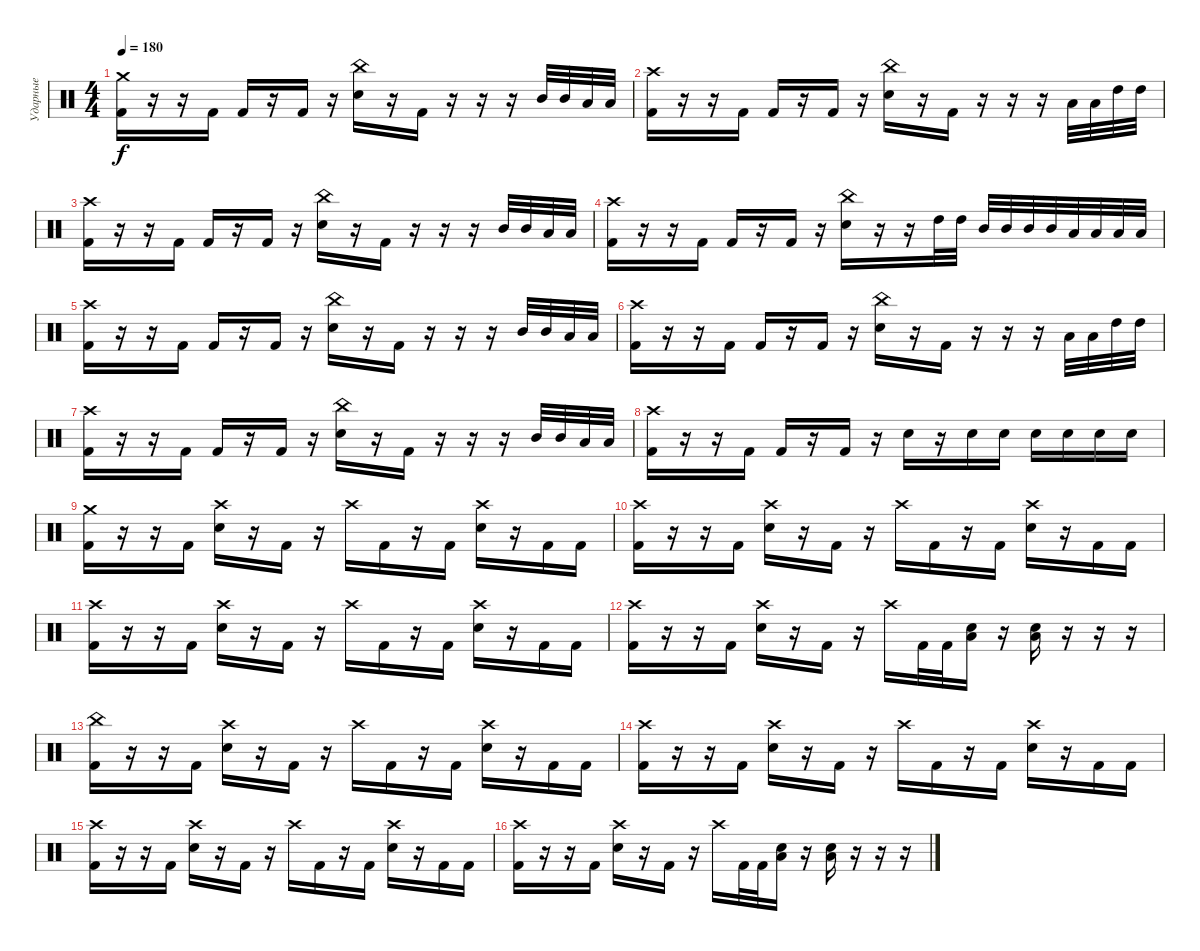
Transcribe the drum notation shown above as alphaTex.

\track ("Ударные" "Ударные") {instrument percussion}
\staff {score}
\articulation defaults
\ts (4 4)
\tempo 180
\clef neutral
\ks c
("Crash medium (hit)" "Kick (hit) 2").16{dy f} r.16 r.16 "Kick (hit) 2".16 "Kick (hit) 2".16 r.16 "Kick (hit) 2".16 r.16 ("China (hit)" "Electric Snare (hit)").16 r.16 "Kick (hit) 2".16 r.16 r.16 r.16 "Mid Tom (hit)".32 "Mid Tom (hit)".32 "Low Tom (hit)".32 "Low Tom (hit)".32 |
("Crash high (hit)" "Kick (hit) 2").16 r.16 r.16 "Kick (hit) 2".16 "Kick (hit) 2".16 r.16 "Kick (hit) 2".16 r.16 ("China (hit)" "Electric Snare (hit)").16 r.16 "Kick (hit) 2".16 r.16 r.16 r.16 "Low Tom (hit)".32 "Low Tom (hit)".32 "High Tom (hit)".32 "High Tom (hit)".32 |
("Crash high (hit)" "Kick (hit) 2").16 r.16 r.16 "Kick (hit) 2".16 "Kick (hit) 2".16 r.16 "Kick (hit) 2".16 r.16 ("China (hit)" "Electric Snare (hit)").16 r.16 "Kick (hit) 2".16 r.16 r.16 r.16 "Mid Tom (hit)".32 "Mid Tom (hit)".32 "Low Tom (hit)".32 "Low Tom (hit)".32 |
("Crash high (hit)" "Kick (hit) 2").16 r.16 r.16 "Kick (hit) 2".16 "Kick (hit) 2".16 r.16 "Kick (hit) 2".16 r.16 ("China (hit)" "Electric Snare (hit)").16 r.16 r.16 "High Tom (hit)".32 "High Tom (hit)".32 "Mid Tom (hit)".32 "Mid Tom (hit)".32 "Mid Tom (hit)".32 "Mid Tom (hit)".32 "Low Tom (hit)".32 "Low Tom (hit)".32 "Low Tom (hit)".32 "Low Tom (hit)".32 |
("Crash high (hit)" "Kick (hit) 2").16 r.16 r.16 "Kick (hit) 2".16 "Kick (hit) 2".16 r.16 "Kick (hit) 2".16 r.16 ("China (hit)" "Electric Snare (hit)").16 r.16 "Kick (hit) 2".16 r.16 r.16 r.16 "Mid Tom (hit)".32 "Mid Tom (hit)".32 "Low Tom (hit)".32 "Low Tom (hit)".32 |
("Crash high (hit)" "Kick (hit) 2").16 r.16 r.16 "Kick (hit) 2".16 "Kick (hit) 2".16 r.16 "Kick (hit) 2".16 r.16 ("China (hit)" "Electric Snare (hit)").16 r.16 "Kick (hit) 2".16 r.16 r.16 r.16 "Low Tom (hit)".32 "Low Tom (hit)".32 "High Tom (hit)".32 "High Tom (hit)".32 |
("Crash high (hit)" "Kick (hit) 2").16 r.16 r.16 "Kick (hit) 2".16 "Kick (hit) 2".16 r.16 "Kick (hit) 2".16 r.16 ("China (hit)" "Electric Snare (hit)").16 r.16 "Kick (hit) 2".16 r.16 r.16 r.16 "Mid Tom (hit)".32 "Mid Tom (hit)".32 "Low Tom (hit)".32 "Low Tom (hit)".32 |
("Crash high (hit)" "Kick (hit) 2").16 r.16 r.16 "Kick (hit) 2".16 "Kick (hit) 2".16 r.16 "Kick (hit) 2".16 r.16 "Electric Snare (hit)".16 r.16 "Electric Snare (hit)".16 "Electric Snare (hit)".16 "Electric Snare (hit)".16 "Electric Snare (hit)".16 "Electric Snare (hit)".16 "Electric Snare (hit)".16 |
("Crash medium (hit)" "Kick (hit) 2").16 r.16 r.16 "Kick (hit) 2".16 ("Crash high (hit)" "Electric Snare (hit)").16 r.16 "Kick (hit) 2".16 r.16 "Crash high (hit)".16 "Kick (hit) 2".16 r.16 "Kick (hit) 2".16 ("Crash high (hit)" "Electric Snare (hit)").16 r.16 "Kick (hit) 2".16 "Kick (hit) 2".16 |
("Crash high (hit)" "Kick (hit) 2").16 r.16 r.16 "Kick (hit) 2".16 ("Crash high (hit)" "Electric Snare (hit)").16 r.16 "Kick (hit) 2".16 r.16 "Crash high (hit)".16 "Kick (hit) 2".16 r.16 "Kick (hit) 2".16 ("Crash high (hit)" "Electric Snare (hit)").16 r.16 "Kick (hit) 2".16 "Kick (hit) 2".16 |
("Crash high (hit)" "Kick (hit) 2").16 r.16 r.16 "Kick (hit) 2".16 ("Crash high (hit)" "Electric Snare (hit)").16 r.16 "Kick (hit) 2".16 r.16 "Crash high (hit)".16 "Kick (hit) 2".16 r.16 "Kick (hit) 2".16 ("Crash high (hit)" "Electric Snare (hit)").16 r.16 "Kick (hit) 2".16 "Kick (hit) 2".16 |
("Crash high (hit)" "Kick (hit) 2").16 r.16 r.16 "Kick (hit) 2".16 ("Crash high (hit)" "Electric Snare (hit)").16 r.16 "Kick (hit) 2".16 r.16 "Crash high (hit)".16 "Kick (hit) 2".32 "Kick (hit) 2".32 ("Low Tom (hit)" "Electric Snare (hit)").16 r.16 ("Low Tom (hit)" "Electric Snare (hit)").16 r.16 r.16 r.16 |
("China (hit)" "Kick (hit) 2").16 r.16 r.16 "Kick (hit) 2".16 ("Crash high (hit)" "Electric Snare (hit)").16 r.16 "Kick (hit) 2".16 r.16 "Crash high (hit)".16 "Kick (hit) 2".16 r.16 "Kick (hit) 2".16 ("Crash high (hit)" "Electric Snare (hit)").16 r.16 "Kick (hit) 2".16 "Kick (hit) 2".16 |
("Crash high (hit)" "Kick (hit) 2").16 r.16 r.16 "Kick (hit) 2".16 ("Crash high (hit)" "Electric Snare (hit)").16 r.16 "Kick (hit) 2".16 r.16 "Crash high (hit)".16 "Kick (hit) 2".16 r.16 "Kick (hit) 2".16 ("Crash high (hit)" "Electric Snare (hit)").16 r.16 "Kick (hit) 2".16 "Kick (hit) 2".16 |
("Crash high (hit)" "Kick (hit) 2").16 r.16 r.16 "Kick (hit) 2".16 ("Crash high (hit)" "Electric Snare (hit)").16 r.16 "Kick (hit) 2".16 r.16 "Crash high (hit)".16 "Kick (hit) 2".16 r.16 "Kick (hit) 2".16 ("Crash high (hit)" "Electric Snare (hit)").16 r.16 "Kick (hit) 2".16 "Kick (hit) 2".16 |
("Crash high (hit)" "Kick (hit) 2").16 r.16 r.16 "Kick (hit) 2".16 ("Crash high (hit)" "Electric Snare (hit)").16 r.16 "Kick (hit) 2".16 r.16 "Crash high (hit)".16 "Kick (hit) 2".32 "Kick (hit) 2".32 ("Low Tom (hit)" "Electric Snare (hit)").16 r.16 ("Low Tom (hit)" "Electric Snare (hit)").16 r.16 r.16 r.16
